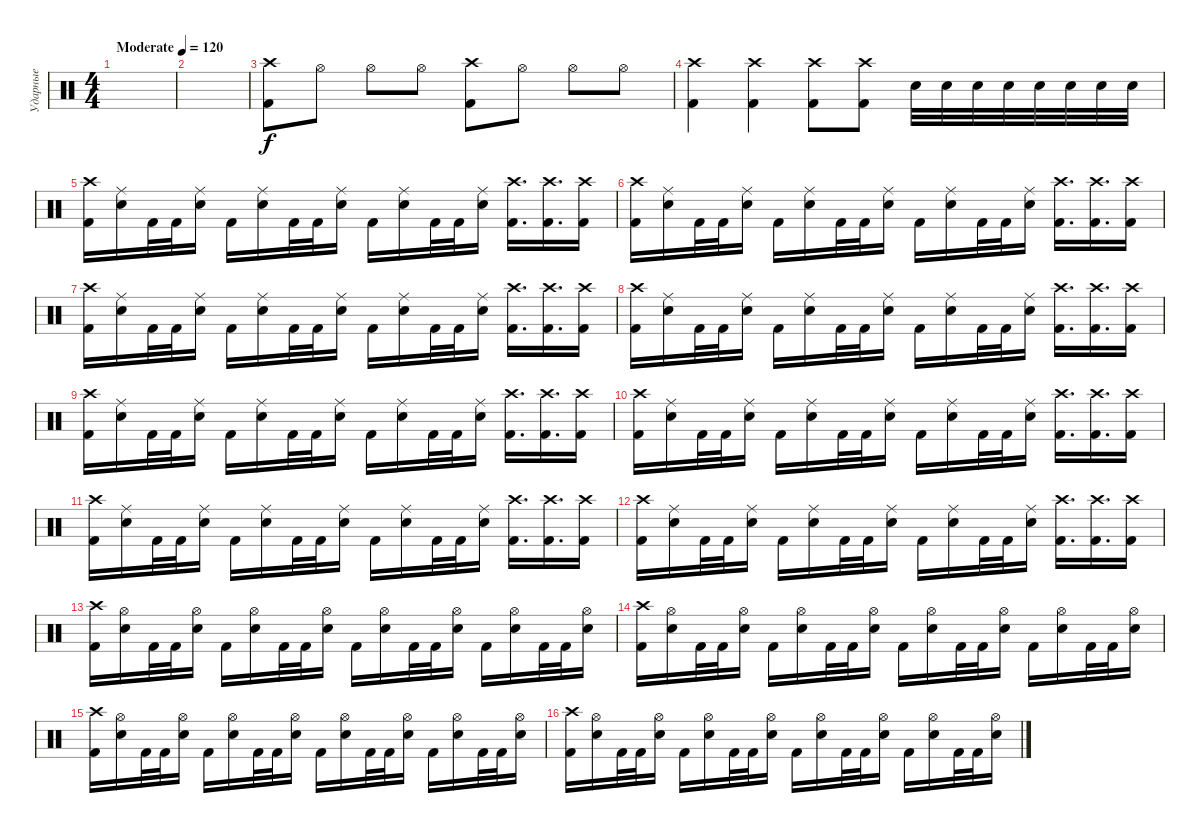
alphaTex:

\track ("Ударные" "Ударные") {instrument percussion}
\staff {score}
\articulation defaults
\ts (4 4)
\tempo (120 "Moderate")
\clef neutral
\ks c
|
|
("Kick (hit) 2" "Crash high (hit)").8 "Hi-Hat (open)".8 "Hi-Hat (open)".8 "Hi-Hat (open)".8 ("Crash high (hit)" "Kick (hit) 2").8 "Hi-Hat (open)".8 "Hi-Hat (open)".8 "Hi-Hat (open)".8 |
("Crash high (hit)" "Kick (hit) 2").4 ("Crash high (hit)" "Kick (hit) 2").4 ("Kick (hit) 2" "Crash high (hit)").8 ("Kick (hit) 2" "Crash high (hit)").8 "Electric Snare (hit)".32 "Electric Snare (hit)".32 "Electric Snare (hit)".32 "Electric Snare (hit)".32 "Electric Snare (hit)".32 "Electric Snare (hit)".32 "Electric Snare (hit)".32 "Electric Snare (hit)".32 |
("Kick (hit) 2" "Crash high (hit)").16 ("Electric Snare (hit)" "Ride (middle)").16 "Kick (hit) 2".32 "Kick (hit) 2".32 ("Electric Snare (hit)" "Ride (middle)").16 "Kick (hit) 2".16 ("Electric Snare (hit)" "Ride (middle)").16 "Kick (hit) 2".32 "Kick (hit) 2".32 ("Electric Snare (hit)" "Ride (middle)").16 "Kick (hit) 2".16 ("Electric Snare (hit)" "Ride (middle)").16 "Kick (hit) 2".32 "Kick (hit) 2".32 ("Electric Snare (hit)" "Ride (middle)").16 ("Kick (hit) 2" "Crash high (hit)").16{d} ("Kick (hit) 2" "Crash high (hit)").16{d} ("Kick (hit) 2" "Crash high (hit)").16 |
("Kick (hit) 2" "Crash high (hit)").16 ("Electric Snare (hit)" "Ride (middle)").16 "Kick (hit) 2".32 "Kick (hit) 2".32 ("Electric Snare (hit)" "Ride (middle)").16 "Kick (hit) 2".16 ("Electric Snare (hit)" "Ride (middle)").16 "Kick (hit) 2".32 "Kick (hit) 2".32 ("Electric Snare (hit)" "Ride (middle)").16 "Kick (hit) 2".16 ("Electric Snare (hit)" "Ride (middle)").16 "Kick (hit) 2".32 "Kick (hit) 2".32 ("Electric Snare (hit)" "Ride (middle)").16 ("Kick (hit) 2" "Crash high (hit)").16{d} ("Kick (hit) 2" "Crash high (hit)").16{d} ("Kick (hit) 2" "Crash high (hit)").16 |
("Kick (hit) 2" "Crash high (hit)").16 ("Electric Snare (hit)" "Ride (middle)").16 "Kick (hit) 2".32 "Kick (hit) 2".32 ("Electric Snare (hit)" "Ride (middle)").16 "Kick (hit) 2".16 ("Electric Snare (hit)" "Ride (middle)").16 "Kick (hit) 2".32 "Kick (hit) 2".32 ("Electric Snare (hit)" "Ride (middle)").16 "Kick (hit) 2".16 ("Electric Snare (hit)" "Ride (middle)").16 "Kick (hit) 2".32 "Kick (hit) 2".32 ("Electric Snare (hit)" "Ride (middle)").16 ("Kick (hit) 2" "Crash high (hit)").16{d} ("Kick (hit) 2" "Crash high (hit)").16{d} ("Kick (hit) 2" "Crash high (hit)").16 |
("Kick (hit) 2" "Crash high (hit)").16 ("Electric Snare (hit)" "Ride (middle)").16 "Kick (hit) 2".32 "Kick (hit) 2".32 ("Electric Snare (hit)" "Ride (middle)").16 "Kick (hit) 2".16 ("Electric Snare (hit)" "Ride (middle)").16 "Kick (hit) 2".32 "Kick (hit) 2".32 ("Electric Snare (hit)" "Ride (middle)").16 "Kick (hit) 2".16 ("Electric Snare (hit)" "Ride (middle)").16 "Kick (hit) 2".32 "Kick (hit) 2".32 ("Electric Snare (hit)" "Ride (middle)").16 ("Kick (hit) 2" "Crash high (hit)").16{d} ("Kick (hit) 2" "Crash high (hit)").16{d} ("Kick (hit) 2" "Crash high (hit)").16 |
("Kick (hit) 2" "Crash high (hit)").16 ("Electric Snare (hit)" "Ride (middle)").16 "Kick (hit) 2".32 "Kick (hit) 2".32 ("Electric Snare (hit)" "Ride (middle)").16 "Kick (hit) 2".16 ("Electric Snare (hit)" "Ride (middle)").16 "Kick (hit) 2".32 "Kick (hit) 2".32 ("Electric Snare (hit)" "Ride (middle)").16 "Kick (hit) 2".16 ("Electric Snare (hit)" "Ride (middle)").16 "Kick (hit) 2".32 "Kick (hit) 2".32 ("Electric Snare (hit)" "Ride (middle)").16 ("Kick (hit) 2" "Crash high (hit)").16{d} ("Kick (hit) 2" "Crash high (hit)").16{d} ("Kick (hit) 2" "Crash high (hit)").16 |
("Kick (hit) 2" "Crash high (hit)").16 ("Electric Snare (hit)" "Ride (middle)").16 "Kick (hit) 2".32 "Kick (hit) 2".32 ("Electric Snare (hit)" "Ride (middle)").16 "Kick (hit) 2".16 ("Electric Snare (hit)" "Ride (middle)").16 "Kick (hit) 2".32 "Kick (hit) 2".32 ("Electric Snare (hit)" "Ride (middle)").16 "Kick (hit) 2".16 ("Electric Snare (hit)" "Ride (middle)").16 "Kick (hit) 2".32 "Kick (hit) 2".32 ("Electric Snare (hit)" "Ride (middle)").16 ("Kick (hit) 2" "Crash high (hit)").16{d} ("Kick (hit) 2" "Crash high (hit)").16{d} ("Kick (hit) 2" "Crash high (hit)").16 |
("Kick (hit) 2" "Crash high (hit)").16 ("Electric Snare (hit)" "Ride (middle)").16 "Kick (hit) 2".32 "Kick (hit) 2".32 ("Electric Snare (hit)" "Ride (middle)").16 "Kick (hit) 2".16 ("Electric Snare (hit)" "Ride (middle)").16 "Kick (hit) 2".32 "Kick (hit) 2".32 ("Electric Snare (hit)" "Ride (middle)").16 "Kick (hit) 2".16 ("Electric Snare (hit)" "Ride (middle)").16 "Kick (hit) 2".32 "Kick (hit) 2".32 ("Electric Snare (hit)" "Ride (middle)").16 ("Kick (hit) 2" "Crash high (hit)").16{d} ("Kick (hit) 2" "Crash high (hit)").16{d} ("Kick (hit) 2" "Crash high (hit)").16 |
("Kick (hit) 2" "Crash high (hit)").16 ("Electric Snare (hit)" "Ride (middle)").16 "Kick (hit) 2".32 "Kick (hit) 2".32 ("Electric Snare (hit)" "Ride (middle)").16 "Kick (hit) 2".16 ("Electric Snare (hit)" "Ride (middle)").16 "Kick (hit) 2".32 "Kick (hit) 2".32 ("Electric Snare (hit)" "Ride (middle)").16 "Kick (hit) 2".16 ("Electric Snare (hit)" "Ride (middle)").16 "Kick (hit) 2".32 "Kick (hit) 2".32 ("Electric Snare (hit)" "Ride (middle)").16 ("Kick (hit) 2" "Crash high (hit)").16{d} ("Kick (hit) 2" "Crash high (hit)").16{d} ("Kick (hit) 2" "Crash high (hit)").16 |
("Kick (hit) 2" "Crash high (hit)").16 ("Electric Snare (hit)" "Hi-Hat (open)").16 "Kick (hit) 2".32 "Kick (hit) 2".32 ("Electric Snare (hit)" "Hi-Hat (open)").16 "Kick (hit) 2".16 ("Electric Snare (hit)" "Hi-Hat (open)").16 "Kick (hit) 2".32 "Kick (hit) 2".32 ("Electric Snare (hit)" "Hi-Hat (open)").16 "Kick (hit) 2".16 ("Electric Snare (hit)" "Hi-Hat (open)").16 "Kick (hit) 2".32 "Kick (hit) 2".32 ("Electric Snare (hit)" "Hi-Hat (open)").16 "Kick (hit) 2".16 ("Electric Snare (hit)" "Hi-Hat (open)").16 "Kick (hit) 2".32 "Kick (hit) 2".32 ("Electric Snare (hit)" "Hi-Hat (open)").16 |
("Kick (hit) 2" "Crash high (hit)").16 ("Electric Snare (hit)" "Hi-Hat (open)").16 "Kick (hit) 2".32 "Kick (hit) 2".32 ("Electric Snare (hit)" "Hi-Hat (open)").16 "Kick (hit) 2".16 ("Electric Snare (hit)" "Hi-Hat (open)").16 "Kick (hit) 2".32 "Kick (hit) 2".32 ("Electric Snare (hit)" "Hi-Hat (open)").16 "Kick (hit) 2".16 ("Electric Snare (hit)" "Hi-Hat (open)").16 "Kick (hit) 2".32 "Kick (hit) 2".32 ("Electric Snare (hit)" "Hi-Hat (open)").16 "Kick (hit) 2".16 ("Electric Snare (hit)" "Hi-Hat (open)").16 "Kick (hit) 2".32 "Kick (hit) 2".32 ("Electric Snare (hit)" "Hi-Hat (open)").16 |
("Kick (hit) 2" "Crash high (hit)").16 ("Electric Snare (hit)" "Hi-Hat (open)").16 "Kick (hit) 2".32 "Kick (hit) 2".32 ("Electric Snare (hit)" "Hi-Hat (open)").16 "Kick (hit) 2".16 ("Electric Snare (hit)" "Hi-Hat (open)").16 "Kick (hit) 2".32 "Kick (hit) 2".32 ("Electric Snare (hit)" "Hi-Hat (open)").16 "Kick (hit) 2".16 ("Electric Snare (hit)" "Hi-Hat (open)").16 "Kick (hit) 2".32 "Kick (hit) 2".32 ("Electric Snare (hit)" "Hi-Hat (open)").16 "Kick (hit) 2".16 ("Electric Snare (hit)" "Hi-Hat (open)").16 "Kick (hit) 2".32 "Kick (hit) 2".32 ("Electric Snare (hit)" "Hi-Hat (open)").16 |
("Kick (hit) 2" "Crash high (hit)").16 ("Electric Snare (hit)" "Hi-Hat (open)").16 "Kick (hit) 2".32 "Kick (hit) 2".32 ("Electric Snare (hit)" "Hi-Hat (open)").16 "Kick (hit) 2".16 ("Electric Snare (hit)" "Hi-Hat (open)").16 "Kick (hit) 2".32 "Kick (hit) 2".32 ("Electric Snare (hit)" "Hi-Hat (open)").16 "Kick (hit) 2".16 ("Electric Snare (hit)" "Hi-Hat (open)").16 "Kick (hit) 2".32 "Kick (hit) 2".32 ("Electric Snare (hit)" "Hi-Hat (open)").16 "Kick (hit) 2".16 ("Electric Snare (hit)" "Hi-Hat (open)").16 "Kick (hit) 2".32 "Kick (hit) 2".32 ("Electric Snare (hit)" "Hi-Hat (open)").16
